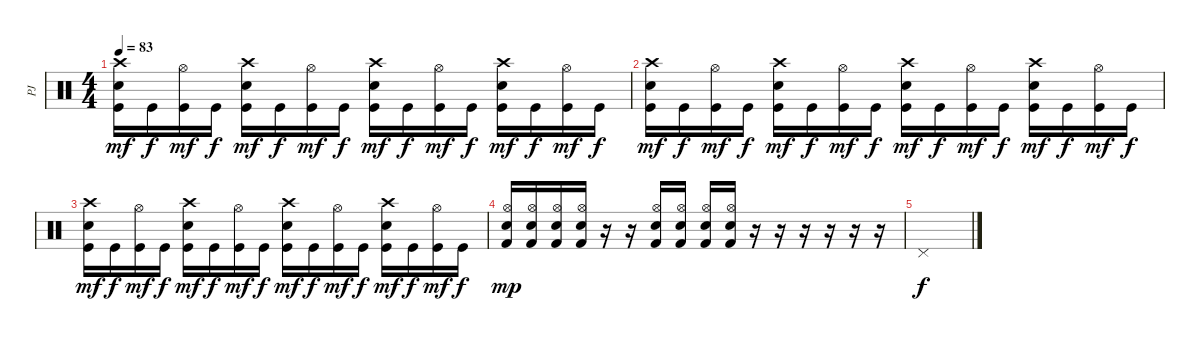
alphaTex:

\track ("PJ" "PJ") {instrument percussion}
\staff {score}
\articulation defaults
\ts (4 4)
\tempo 83
\clef neutral
\ks c
("Crash high (hit)" "Electric Snare (hit)" "Kick (hit)").16{dy mf} "Kick (hit)".16{dy f} ("Hi-Hat (open)" "Kick (hit)").16{dy mf} "Kick (hit)".16{dy f} ("Crash high (hit)" "Electric Snare (hit)" "Kick (hit)").16{dy mf} "Kick (hit)".16{dy f} ("Hi-Hat (open)" "Kick (hit)").16{dy mf} "Kick (hit)".16{dy f} ("Crash high (hit)" "Electric Snare (hit)" "Kick (hit)").16{dy mf} "Kick (hit)".16{dy f} ("Hi-Hat (open)" "Kick (hit)").16{dy mf} "Kick (hit)".16{dy f} ("Crash high (hit)" "Electric Snare (hit)" "Kick (hit)").16{dy mf} "Kick (hit)".16{dy f} ("Hi-Hat (open)" "Kick (hit)").16{dy mf} "Kick (hit)".16{dy f} |
("Crash high (hit)" "Electric Snare (hit)" "Kick (hit)").16{dy mf} "Kick (hit)".16{dy f} ("Hi-Hat (open)" "Kick (hit)").16{dy mf} "Kick (hit)".16{dy f} ("Crash high (hit)" "Electric Snare (hit)" "Kick (hit)").16{dy mf} "Kick (hit)".16{dy f} ("Hi-Hat (open)" "Kick (hit)").16{dy mf} "Kick (hit)".16{dy f} ("Crash high (hit)" "Electric Snare (hit)" "Kick (hit)").16{dy mf} "Kick (hit)".16{dy f} ("Hi-Hat (open)" "Kick (hit)").16{dy mf} "Kick (hit)".16{dy f} ("Crash high (hit)" "Electric Snare (hit)" "Kick (hit)").16{dy mf} "Kick (hit)".16{dy f} ("Hi-Hat (open)" "Kick (hit)").16{dy mf} "Kick (hit)".16{dy f} |
("Crash high (hit)" "Electric Snare (hit)" "Kick (hit)").16{dy mf} "Kick (hit)".16{dy f} ("Hi-Hat (open)" "Kick (hit)").16{dy mf} "Kick (hit)".16{dy f} ("Crash high (hit)" "Electric Snare (hit)" "Kick (hit)").16{dy mf} "Kick (hit)".16{dy f} ("Hi-Hat (open)" "Kick (hit)").16{dy mf} "Kick (hit)".16{dy f} ("Crash high (hit)" "Electric Snare (hit)" "Kick (hit)").16{dy mf} "Kick (hit)".16{dy f} ("Hi-Hat (open)" "Kick (hit)").16{dy mf} "Kick (hit)".16{dy f} ("Crash high (hit)" "Electric Snare (hit)" "Kick (hit)").16{dy mf} "Kick (hit)".16{dy f} ("Hi-Hat (open)" "Kick (hit)").16{dy mf} "Kick (hit)".16{dy f} |
("Hi-Hat (open)" "Electric Snare (hit)" "Kick (hit) 2").16{dy mp} ("Hi-Hat (open)" "Electric Snare (hit)" "Kick (hit) 2").16 ("Hi-Hat (open)" "Electric Snare (hit)" "Kick (hit) 2").16 ("Hi-Hat (open)" "Electric Snare (hit)" "Kick (hit) 2").16 r.16 r.16 ("Hi-Hat (open)" "Electric Snare (hit)" "Kick (hit) 2").16 ("Hi-Hat (open)" "Electric Snare (hit)" "Kick (hit) 2").16 ("Hi-Hat (open)" "Electric Snare (hit)" "Kick (hit) 2").16 ("Hi-Hat (open)" "Electric Snare (hit)" "Kick (hit) 2").16 r.16 r.16 r.16 r.16 r.16 r.16 |
"Pedal Hi-Hat (hit)".1{dy f}
